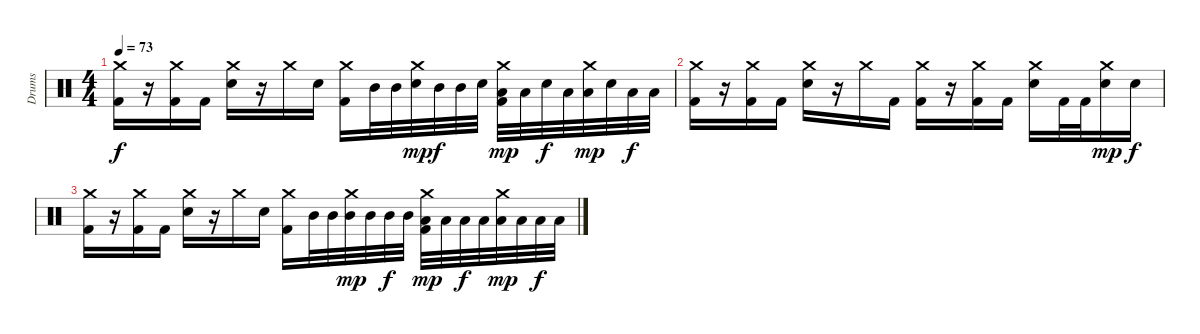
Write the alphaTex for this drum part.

\track ("Drums" "Drums") {instrument percussion}
\staff {score}
\articulation defaults
\ts (4 4)
\tempo 73
\clef neutral
\ks c
("Crash medium (hit)" "Kick (hit) 2").16{dy f volume 9} r.16 ("Crash medium (hit)" "Kick (hit) 2").16 "Kick (hit) 2".16 ("Crash medium (hit)" "Electric Snare (hit)").16 r.16 "Crash medium (hit)".16 "Electric Snare (hit)".16 ("Crash medium (hit)" "Kick (hit) 2").16 "Mid Tom (hit)".32 "Mid Tom (hit)".32 ("Crash medium (hit)" "Electric Snare (hit)").32{dy mp} "Mid Tom (hit)".32{dy f} "Mid Tom (hit)".32 "Electric Snare (hit)".32 ("Crash medium (hit)" "Low Tom (hit)" "Kick (hit) 2").32{dy mp} "Low Tom (hit)".32 "Electric Snare (hit)".32{dy f} "Low Tom (hit)".32 ("Crash medium (hit)" "Low Tom (hit)").32{dy mp} "Electric Snare (hit)".32 "Low Tom (hit)".32{dy f} "Low Tom (hit)".32 |
("Crash medium (hit)" "Kick (hit) 2").16{volume 6} r.16 ("Crash medium (hit)" "Kick (hit) 2").16 "Kick (hit) 2".16 ("Crash medium (hit)" "Electric Snare (hit)").16 r.16 "Crash medium (hit)".16 "Kick (hit) 2".16 ("Crash medium (hit)" "Kick (hit) 2").16 r.16 ("Crash medium (hit)" "Kick (hit) 2").16 "Kick (hit) 2".16 ("Crash medium (hit)" "Electric Snare (hit)").16 "Kick (hit) 2".32 "Kick (hit) 2".32 ("Crash medium (hit)" "Electric Snare (hit)").16{dy mp} "Electric Snare (hit)".16{dy f} |
("Crash medium (hit)" "Kick (hit) 2").16{volume 4} r.16 ("Crash medium (hit)" "Kick (hit) 2").16 "Kick (hit) 2".16 ("Crash medium (hit)" "Electric Snare (hit)").16 r.16 "Crash medium (hit)".16 "Electric Snare (hit)".16 ("Crash medium (hit)" "Kick (hit) 2").16{volume 2} "Mid Tom (hit)".32 "Mid Tom (hit)".32 ("Crash medium (hit)" "Mid Tom (hit)").32{dy mp} "Mid Tom (hit)".32 "Mid Tom (hit)".32{dy f} "Mid Tom (hit)".32 ("Crash medium (hit)" "Low Tom (hit)" "Kick (hit) 2").32{dy mp} "Low Tom (hit)".32 "Low Tom (hit)".32{dy f} "Low Tom (hit)".32 ("Crash medium (hit)" "Low Tom (hit)").32{dy mp} "Low Tom (hit)".32 "Low Tom (hit)".32{dy f} "Low Tom (hit)".32
